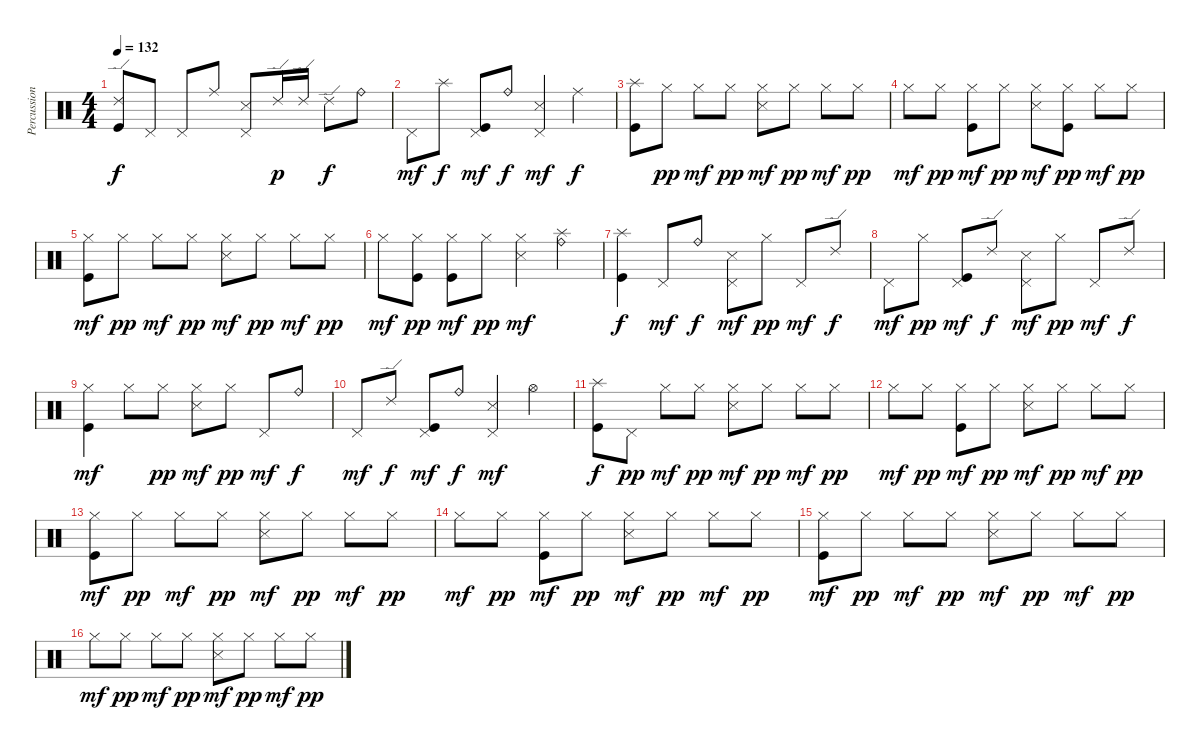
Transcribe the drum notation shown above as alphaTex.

\track ("Percussion" "Percussion") {instrument percussion}
\staff {score}
\articulation defaults
\ts (4 4)
\tempo 132
\clef neutral
\ks c
("Ride (edge) 2" "Kick (hit)").8{dy f} "Pedal Hi-Hat (hit)".8 "Pedal Hi-Hat (hit)".8 "Ride (middle)".8 ("Pedal Hi-Hat (hit)" "Snare (side stick) 3").8 "Ride (edge) 2".16{dy p} "Ride (edge) 2".16 "Ride (edge) 2".8{dy f} "Ride (bell)".8 |
"Pedal Hi-Hat (hit)".8{dy mf} "Splash (hit)".8{dy f} ("Pedal Hi-Hat (hit)" "Kick (hit)").8{dy mf} "Ride (bell)".8{dy f} ("Pedal Hi-Hat (hit)" "Snare (side stick) 3").4{dy mf} "Ride (middle)".4{dy f} |
("Splash (hit)" "Kick (hit)").8 "Hi-Hat (closed)".8{dy pp} "Hi-Hat (closed)".8{dy mf} "Hi-Hat (closed)".8{dy pp} ("Hi-Hat (closed)" "Snare (side stick) 3").8{dy mf} "Hi-Hat (closed)".8{dy pp} "Hi-Hat (closed)".8{dy mf} "Hi-Hat (closed)".8{dy pp} |
"Hi-Hat (closed)".8{dy mf} "Hi-Hat (closed)".8{dy pp} ("Hi-Hat (closed)" "Kick (hit)").8{dy mf} "Hi-Hat (closed)".8{dy pp} ("Hi-Hat (closed)" "Snare (side stick) 3").8{dy mf} ("Hi-Hat (closed)" "Kick (hit)").8{dy pp} "Hi-Hat (closed)".8{dy mf} "Hi-Hat (closed)".8{dy pp} |
("Hi-Hat (closed)" "Kick (hit)").8{dy mf} "Hi-Hat (closed)".8{dy pp} "Hi-Hat (closed)".8{dy mf} "Hi-Hat (closed)".8{dy pp} ("Hi-Hat (closed)" "Snare (side stick) 3").8{dy mf} "Hi-Hat (closed)".8{dy pp} "Hi-Hat (closed)".8{dy mf} "Hi-Hat (closed)".8{dy pp} |
"Hi-Hat (closed)".8{dy mf} ("Hi-Hat (closed)" "Kick (hit)").8{dy pp} ("Hi-Hat (closed)" "Kick (hit)").8{dy mf} "Hi-Hat (closed)".8{dy pp} ("Hi-Hat (closed)" "Snare (side stick) 3").4{dy mf} ("Ride (bell)" "Splash (hit)").4 |
("Splash (hit)" "Kick (hit)").4{dy f} "Pedal Hi-Hat (hit)".8{dy mf} "Ride (bell)".8{dy f} ("Pedal Hi-Hat (hit)" "Snare (side stick) 3").8{dy mf} "Hi-Hat (closed)".8{dy pp} "Pedal Hi-Hat (hit)".8{dy mf} "Ride (edge) 2".8{dy f} |
"Pedal Hi-Hat (hit)".8{dy mf} "Hi-Hat (closed)".8{dy pp} ("Pedal Hi-Hat (hit)" "Kick (hit)").8{dy mf} "Ride (edge) 2".8{dy f} ("Pedal Hi-Hat (hit)" "Snare (side stick) 3").8{dy mf} "Hi-Hat (closed)".8{dy pp} "Pedal Hi-Hat (hit)".8{dy mf} "Ride (edge) 2".8{dy f} |
("Hi-Hat (closed)" "Kick (hit)").4{dy mf} "Hi-Hat (closed)".8 "Hi-Hat (closed)".8{dy pp} ("Hi-Hat (closed)" "Snare (side stick) 3").8{dy mf} "Hi-Hat (closed)".8{dy pp} "Pedal Hi-Hat (hit)".8{dy mf} "Ride (bell)".8{dy f} |
"Pedal Hi-Hat (hit)".8{dy mf} "Ride (edge) 2".8{dy f} ("Pedal Hi-Hat (hit)" "Kick (hit)").8{dy mf} "Ride (bell)".8{dy f} ("Pedal Hi-Hat (hit)" "Snare (side stick) 3").4{dy mf} "Hi-Hat (open)".4 |
("Splash (hit)" "Kick (hit)").8{dy f} "Pedal Hi-Hat (hit)".8{dy pp} "Hi-Hat (closed)".8{dy mf} "Hi-Hat (closed)".8{dy pp} ("Hi-Hat (closed)" "Snare (side stick) 3").8{dy mf} "Hi-Hat (closed)".8{dy pp} "Hi-Hat (closed)".8{dy mf} "Hi-Hat (closed)".8{dy pp} |
"Hi-Hat (closed)".8{dy mf} "Hi-Hat (closed)".8{dy pp} ("Hi-Hat (closed)" "Kick (hit)").8{dy mf} "Hi-Hat (closed)".8{dy pp} ("Hi-Hat (closed)" "Snare (side stick) 3").8{dy mf} "Hi-Hat (closed)".8{dy pp} "Hi-Hat (closed)".8{dy mf} "Hi-Hat (closed)".8{dy pp} |
("Hi-Hat (closed)" "Kick (hit)").8{dy mf} "Hi-Hat (closed)".8{dy pp} "Hi-Hat (closed)".8{dy mf} "Hi-Hat (closed)".8{dy pp} ("Hi-Hat (closed)" "Snare (side stick) 3").8{dy mf} "Hi-Hat (closed)".8{dy pp} "Hi-Hat (closed)".8{dy mf} "Hi-Hat (closed)".8{dy pp} |
"Hi-Hat (closed)".8{dy mf} "Hi-Hat (closed)".8{dy pp} ("Hi-Hat (closed)" "Kick (hit)").8{dy mf} "Hi-Hat (closed)".8{dy pp} ("Hi-Hat (closed)" "Snare (side stick) 3").8{dy mf} "Hi-Hat (closed)".8{dy pp} "Hi-Hat (closed)".8{dy mf} "Hi-Hat (closed)".8{dy pp} |
("Hi-Hat (closed)" "Kick (hit)").8{dy mf} "Hi-Hat (closed)".8{dy pp} "Hi-Hat (closed)".8{dy mf} "Hi-Hat (closed)".8{dy pp} ("Hi-Hat (closed)" "Snare (side stick) 3").8{dy mf} "Hi-Hat (closed)".8{dy pp} "Hi-Hat (closed)".8{dy mf} "Hi-Hat (closed)".8{dy pp} |
"Hi-Hat (closed)".8{dy mf} "Hi-Hat (closed)".8{dy pp} "Hi-Hat (closed)".8{dy mf} "Hi-Hat (closed)".8{dy pp} ("Hi-Hat (closed)" "Snare (side stick) 3").8{dy mf} "Hi-Hat (closed)".8{dy pp} "Hi-Hat (closed)".8{dy mf} "Hi-Hat (closed)".8{dy pp}
